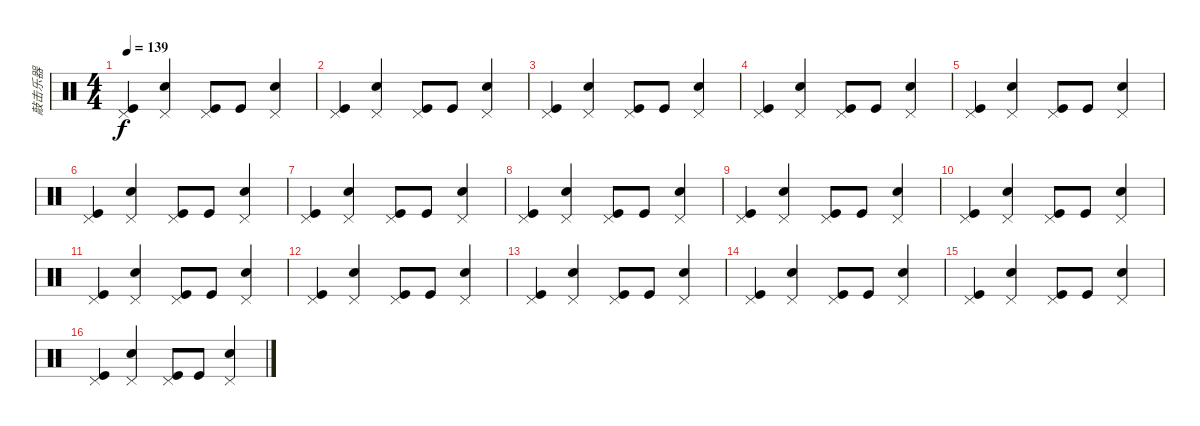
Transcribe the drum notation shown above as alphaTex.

\track ("敲击乐器" "敲击乐器") {instrument percussion}
\staff {score}
\articulation defaults
\ts (4 4)
\tempo 139
\clef neutral
\ks c
("Pedal Hi-Hat (hit)" "Kick (hit)").4{dy f} ("Pedal Hi-Hat (hit)" "Snare (hit) 2").4 ("Pedal Hi-Hat (hit)" "Kick (hit)").8 "Kick (hit)".8 ("Pedal Hi-Hat (hit)" "Snare (hit) 2").4 |
("Pedal Hi-Hat (hit)" "Kick (hit)").4 ("Pedal Hi-Hat (hit)" "Snare (hit) 2").4 ("Pedal Hi-Hat (hit)" "Kick (hit)").8 "Kick (hit)".8 ("Pedal Hi-Hat (hit)" "Snare (hit) 2").4 |
("Pedal Hi-Hat (hit)" "Kick (hit)").4 ("Pedal Hi-Hat (hit)" "Snare (hit) 2").4 ("Pedal Hi-Hat (hit)" "Kick (hit)").8 "Kick (hit)".8 ("Pedal Hi-Hat (hit)" "Snare (hit) 2").4 |
("Pedal Hi-Hat (hit)" "Kick (hit)").4 ("Pedal Hi-Hat (hit)" "Snare (hit) 2").4 ("Pedal Hi-Hat (hit)" "Kick (hit)").8 "Kick (hit)".8 ("Pedal Hi-Hat (hit)" "Snare (hit) 2").4 |
("Pedal Hi-Hat (hit)" "Kick (hit)").4 ("Pedal Hi-Hat (hit)" "Snare (hit) 2").4 ("Pedal Hi-Hat (hit)" "Kick (hit)").8 "Kick (hit)".8 ("Pedal Hi-Hat (hit)" "Snare (hit) 2").4 |
("Pedal Hi-Hat (hit)" "Kick (hit)").4 ("Pedal Hi-Hat (hit)" "Snare (hit) 2").4 ("Pedal Hi-Hat (hit)" "Kick (hit)").8 "Kick (hit)".8 ("Pedal Hi-Hat (hit)" "Snare (hit) 2").4 |
("Pedal Hi-Hat (hit)" "Kick (hit)").4 ("Pedal Hi-Hat (hit)" "Snare (hit) 2").4 ("Pedal Hi-Hat (hit)" "Kick (hit)").8 "Kick (hit)".8 ("Pedal Hi-Hat (hit)" "Snare (hit) 2").4 |
("Pedal Hi-Hat (hit)" "Kick (hit)").4 ("Pedal Hi-Hat (hit)" "Snare (hit) 2").4 ("Pedal Hi-Hat (hit)" "Kick (hit)").8 "Kick (hit)".8 ("Pedal Hi-Hat (hit)" "Snare (hit) 2").4 |
("Pedal Hi-Hat (hit)" "Kick (hit)").4 ("Pedal Hi-Hat (hit)" "Snare (hit) 2").4 ("Pedal Hi-Hat (hit)" "Kick (hit)").8 "Kick (hit)".8 ("Pedal Hi-Hat (hit)" "Snare (hit) 2").4 |
("Pedal Hi-Hat (hit)" "Kick (hit)").4 ("Pedal Hi-Hat (hit)" "Snare (hit) 2").4 ("Pedal Hi-Hat (hit)" "Kick (hit)").8 "Kick (hit)".8 ("Pedal Hi-Hat (hit)" "Snare (hit) 2").4 |
("Pedal Hi-Hat (hit)" "Kick (hit)").4 ("Pedal Hi-Hat (hit)" "Snare (hit) 2").4 ("Pedal Hi-Hat (hit)" "Kick (hit)").8 "Kick (hit)".8 ("Pedal Hi-Hat (hit)" "Snare (hit) 2").4 |
("Pedal Hi-Hat (hit)" "Kick (hit)").4 ("Pedal Hi-Hat (hit)" "Snare (hit) 2").4 ("Pedal Hi-Hat (hit)" "Kick (hit)").8 "Kick (hit)".8 ("Pedal Hi-Hat (hit)" "Snare (hit) 2").4 |
("Pedal Hi-Hat (hit)" "Kick (hit)").4 ("Pedal Hi-Hat (hit)" "Snare (hit) 2").4 ("Pedal Hi-Hat (hit)" "Kick (hit)").8 "Kick (hit)".8 ("Pedal Hi-Hat (hit)" "Snare (hit) 2").4 |
("Pedal Hi-Hat (hit)" "Kick (hit)").4 ("Pedal Hi-Hat (hit)" "Snare (hit) 2").4 ("Pedal Hi-Hat (hit)" "Kick (hit)").8 "Kick (hit)".8 ("Pedal Hi-Hat (hit)" "Snare (hit) 2").4 |
("Pedal Hi-Hat (hit)" "Kick (hit)").4 ("Pedal Hi-Hat (hit)" "Snare (hit) 2").4 ("Pedal Hi-Hat (hit)" "Kick (hit)").8 "Kick (hit)".8 ("Pedal Hi-Hat (hit)" "Snare (hit) 2").4 |
("Pedal Hi-Hat (hit)" "Kick (hit)").4 ("Pedal Hi-Hat (hit)" "Snare (hit) 2").4 ("Pedal Hi-Hat (hit)" "Kick (hit)").8 "Kick (hit)".8 ("Pedal Hi-Hat (hit)" "Snare (hit) 2").4
